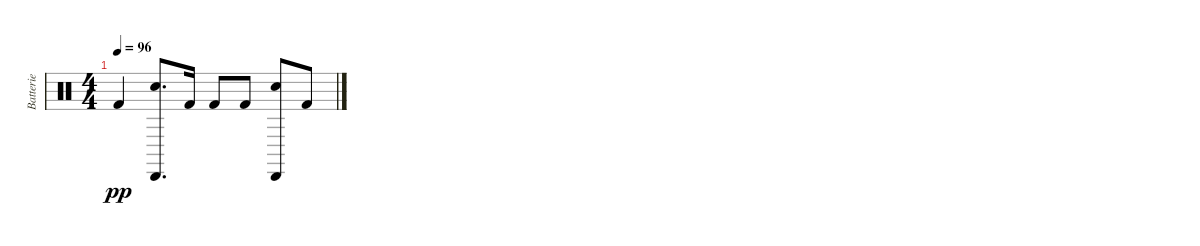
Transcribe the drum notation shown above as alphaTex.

\track ("Batterie" "Batterie") {instrument percussion}
\staff {score}
\articulation defaults
\ts (4 4)
\tempo 96
\clef neutral
\ks c "Kick (hit) 2".4{dy pp}
("Electric Snare (hit)" "Cabasa (hit)").8{d} "Kick (hit) 2".16 "Kick (hit) 2".8 "Kick (hit) 2".8 ("Cabasa (hit)" "Electric Snare (hit)").8 "Kick (hit) 2".8
